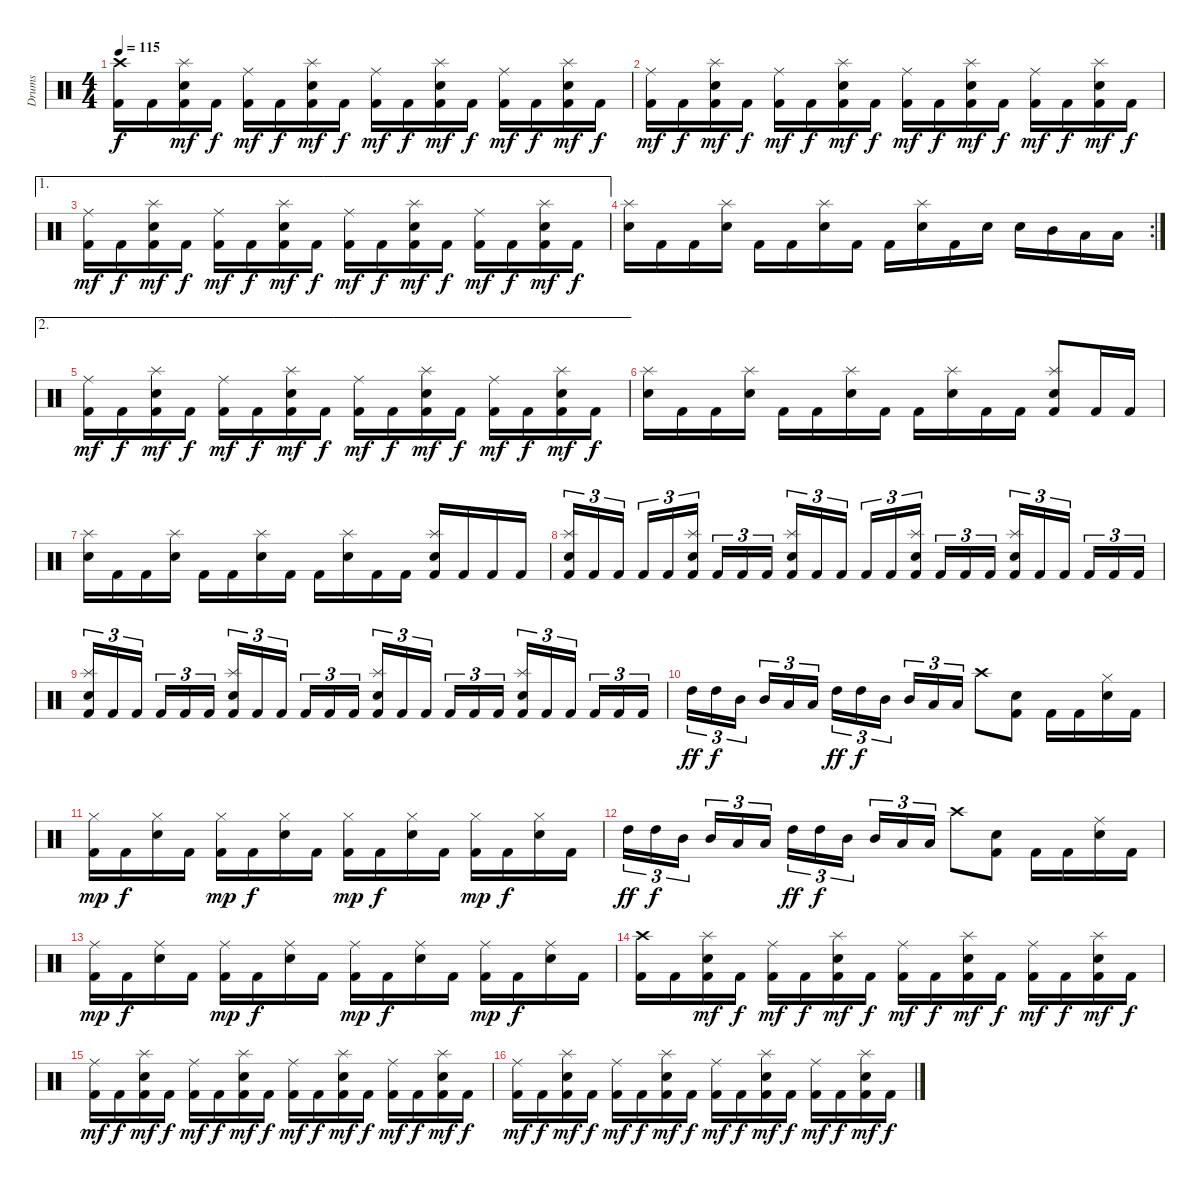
\track ("Drums" "Drums") {instrument percussion}
\staff {score}
\articulation defaults
\ts (4 4)
\tempo 115
\clef neutral
\ks c
("Crash high (hit)" "Kick (hit) 2").16{dy f} "Kick (hit) 2".16 ("Splash (hit)" "Snare (hit) 2" "Kick (hit) 2").16{dy mf} "Kick (hit) 2".16{dy f} ("Ride (middle)" "Kick (hit) 2").16{dy mf} "Kick (hit) 2".16{dy f} ("Splash (hit)" "Snare (hit) 2" "Kick (hit) 2").16{dy mf} "Kick (hit) 2".16{dy f} ("Ride (middle)" "Kick (hit) 2").16{dy mf} "Kick (hit) 2".16{dy f} ("Splash (hit)" "Snare (hit) 2" "Kick (hit) 2").16{dy mf} "Kick (hit) 2".16{dy f} ("Ride (middle)" "Kick (hit) 2").16{dy mf} "Kick (hit) 2".16{dy f} ("Splash (hit)" "Snare (hit) 2" "Kick (hit) 2").16{dy mf} "Kick (hit) 2".16{dy f} |
("Ride (middle)" "Kick (hit) 2").16{dy mf} "Kick (hit) 2".16{dy f} ("Splash (hit)" "Snare (hit) 2" "Kick (hit) 2").16{dy mf} "Kick (hit) 2".16{dy f} ("Ride (middle)" "Kick (hit) 2").16{dy mf} "Kick (hit) 2".16{dy f} ("Splash (hit)" "Snare (hit) 2" "Kick (hit) 2").16{dy mf} "Kick (hit) 2".16{dy f} ("Ride (middle)" "Kick (hit) 2").16{dy mf} "Kick (hit) 2".16{dy f} ("Splash (hit)" "Snare (hit) 2" "Kick (hit) 2").16{dy mf} "Kick (hit) 2".16{dy f} ("Ride (middle)" "Kick (hit) 2").16{dy mf} "Kick (hit) 2".16{dy f} ("Splash (hit)" "Snare (hit) 2" "Kick (hit) 2").16{dy mf} "Kick (hit) 2".16{dy f} |
\ae 1
("Ride (middle)" "Kick (hit) 2").16{dy mf} "Kick (hit) 2".16{dy f} ("Splash (hit)" "Snare (hit) 2" "Kick (hit) 2").16{dy mf} "Kick (hit) 2".16{dy f} ("Ride (middle)" "Kick (hit) 2").16{dy mf} "Kick (hit) 2".16{dy f} ("Splash (hit)" "Snare (hit) 2" "Kick (hit) 2").16{dy mf} "Kick (hit) 2".16{dy f} ("Ride (middle)" "Kick (hit) 2").16{dy mf} "Kick (hit) 2".16{dy f} ("Splash (hit)" "Snare (hit) 2" "Kick (hit) 2").16{dy mf} "Kick (hit) 2".16{dy f} ("Ride (middle)" "Kick (hit) 2").16{dy mf} "Kick (hit) 2".16{dy f} ("Splash (hit)" "Snare (hit) 2" "Kick (hit) 2").16{dy mf} "Kick (hit) 2".16{dy f} |
\rc 2
("Splash (hit)" "Snare (hit) 2").16 "Kick (hit) 2".16 "Kick (hit) 2".16 ("Splash (hit)" "Snare (hit) 2").16 "Kick (hit) 2".16 "Kick (hit) 2".16 ("Splash (hit)" "Snare (hit) 2").16 "Kick (hit) 2".16 "Kick (hit) 2".16 ("Splash (hit)" "Snare (hit) 2").16 "Kick (hit) 2".16 "Snare (hit) 2".16 "Snare (hit) 2".16 "Mid Tom (hit)".16 "Low Tom (hit)".16 "Low Tom (hit)".16 |
\ae 2
("Ride (middle)" "Kick (hit) 2").16{dy mf} "Kick (hit) 2".16{dy f} ("Splash (hit)" "Snare (hit) 2" "Kick (hit) 2").16{dy mf} "Kick (hit) 2".16{dy f} ("Ride (middle)" "Kick (hit) 2").16{dy mf} "Kick (hit) 2".16{dy f} ("Splash (hit)" "Snare (hit) 2" "Kick (hit) 2").16{dy mf} "Kick (hit) 2".16{dy f} ("Ride (middle)" "Kick (hit) 2").16{dy mf} "Kick (hit) 2".16{dy f} ("Splash (hit)" "Snare (hit) 2" "Kick (hit) 2").16{dy mf} "Kick (hit) 2".16{dy f} ("Ride (middle)" "Kick (hit) 2").16{dy mf} "Kick (hit) 2".16{dy f} ("Splash (hit)" "Snare (hit) 2" "Kick (hit) 2").16{dy mf} "Kick (hit) 2".16{dy f} |
("Splash (hit)" "Snare (hit) 2").16 "Kick (hit) 2".16 "Kick (hit) 2".16 ("Splash (hit)" "Snare (hit) 2").16 "Kick (hit) 2".16 "Kick (hit) 2".16 ("Splash (hit)" "Snare (hit) 2").16 "Kick (hit) 2".16 "Kick (hit) 2".16 ("Splash (hit)" "Snare (hit) 2").16 "Kick (hit) 2".16 "Kick (hit) 2".16 ("Splash (hit)" "Snare (hit) 2" "Kick (hit) 2").8 "Kick (hit) 2".16 "Kick (hit) 2".16 |
("Splash (hit)" "Snare (hit) 2").16 "Kick (hit) 2".16 "Kick (hit) 2".16 ("Splash (hit)" "Snare (hit) 2").16 "Kick (hit) 2".16 "Kick (hit) 2".16 ("Splash (hit)" "Snare (hit) 2").16 "Kick (hit) 2".16 "Kick (hit) 2".16 ("Splash (hit)" "Snare (hit) 2").16 "Kick (hit) 2".16 "Kick (hit) 2".16 ("Splash (hit)" "Snare (hit) 2" "Kick (hit) 2").16 "Kick (hit) 2".16 "Kick (hit) 2".16 "Kick (hit) 2".16 |
("Splash (hit)" "Snare (hit) 2" "Kick (hit) 2").16{tu (3 2)} "Kick (hit) 2".16{tu (3 2)} "Kick (hit) 2".16{tu (3 2) beam splitsecondary} "Kick (hit) 2".16{tu (3 2)} "Kick (hit) 2".16{tu (3 2)} ("Splash (hit)" "Snare (hit) 2" "Kick (hit) 2").16{tu (3 2)} "Kick (hit) 2".16{tu (3 2)} "Kick (hit) 2".16{tu (3 2)} "Kick (hit) 2".16{tu (3 2) beam splitsecondary} ("Splash (hit)" "Snare (hit) 2" "Kick (hit) 2").16{tu (3 2)} "Kick (hit) 2".16{tu (3 2)} "Kick (hit) 2".16{tu (3 2)} "Kick (hit) 2".16{tu (3 2)} "Kick (hit) 2".16{tu (3 2)} ("Splash (hit)" "Snare (hit) 2" "Kick (hit) 2").16{tu (3 2) beam splitsecondary} "Kick (hit) 2".16{tu (3 2)} "Kick (hit) 2".16{tu (3 2)} "Kick (hit) 2".16{tu (3 2)} ("Splash (hit)" "Snare (hit) 2" "Kick (hit) 2").16{tu (3 2)} "Kick (hit) 2".16{tu (3 2)} "Kick (hit) 2".16{tu (3 2) beam splitsecondary} "Kick (hit) 2".16{tu (3 2)} "Kick (hit) 2".16{tu (3 2)} "Kick (hit) 2".16{tu (3 2)} |
("Splash (hit)" "Snare (hit) 2" "Kick (hit) 2").16{tu (3 2)} "Kick (hit) 2".16{tu (3 2)} "Kick (hit) 2".16{tu (3 2) beam splitsecondary} "Kick (hit) 2".16{tu (3 2)} "Kick (hit) 2".16{tu (3 2)} "Kick (hit) 2".16{tu (3 2)} ("Splash (hit)" "Snare (hit) 2" "Kick (hit) 2").16{tu (3 2)} "Kick (hit) 2".16{tu (3 2)} "Kick (hit) 2".16{tu (3 2) beam splitsecondary} "Kick (hit) 2".16{tu (3 2)} "Kick (hit) 2".16{tu (3 2)} "Kick (hit) 2".16{tu (3 2)} ("Splash (hit)" "Snare (hit) 2" "Kick (hit) 2").16{tu (3 2)} "Kick (hit) 2".16{tu (3 2)} "Kick (hit) 2".16{tu (3 2) beam splitsecondary} "Kick (hit) 2".16{tu (3 2)} "Kick (hit) 2".16{tu (3 2)} "Kick (hit) 2".16{tu (3 2)} ("Splash (hit)" "Snare (hit) 2" "Kick (hit) 2").16{tu (3 2)} "Kick (hit) 2".16{tu (3 2)} "Kick (hit) 2".16{tu (3 2) beam splitsecondary} "Kick (hit) 2".16{tu (3 2)} "Kick (hit) 2".16{tu (3 2)} "Kick (hit) 2".16{tu (3 2)} |
"High Tom (hit)".16{tu (3 2) dy ff} "High Tom (hit)".16{tu (3 2) dy f} "Mid Tom (hit)".16{tu (3 2) beam splitsecondary} "Mid Tom (hit)".16{tu (3 2)} "Low Tom (hit)".16{tu (3 2)} "Low Tom (hit)".16{tu (3 2)} "High Tom (hit)".16{tu (3 2) dy ff} "High Tom (hit)".16{tu (3 2) dy f} "Mid Tom (hit)".16{tu (3 2) beam splitsecondary} "Mid Tom (hit)".16{tu (3 2)} "Low Tom (hit)".16{tu (3 2)} "Low Tom (hit)".16{tu (3 2)} "Crash high (hit)".8 ("Snare (hit) 2" "Kick (hit) 2").8 "Kick (hit) 2".16 "Kick (hit) 2".16 ("Hi-Hat (closed)" "Snare (hit) 2").16 "Kick (hit) 2".16 |
("Hi-Hat (closed)" "Kick (hit) 2").16{dy mp} "Kick (hit) 2".16{dy f} ("Hi-Hat (closed)" "Snare (hit) 2").16 "Kick (hit) 2".16 ("Hi-Hat (closed)" "Kick (hit) 2").16{dy mp} "Kick (hit) 2".16{dy f} ("Hi-Hat (closed)" "Snare (hit) 2").16 "Kick (hit) 2".16 ("Hi-Hat (closed)" "Kick (hit) 2").16{dy mp} "Kick (hit) 2".16{dy f} ("Hi-Hat (closed)" "Snare (hit) 2").16 "Kick (hit) 2".16 ("Hi-Hat (closed)" "Kick (hit) 2").16{dy mp} "Kick (hit) 2".16{dy f} ("Hi-Hat (closed)" "Snare (hit) 2").16 "Kick (hit) 2".16 |
"High Tom (hit)".16{tu (3 2) dy ff} "High Tom (hit)".16{tu (3 2) dy f} "Mid Tom (hit)".16{tu (3 2) beam splitsecondary} "Mid Tom (hit)".16{tu (3 2)} "Low Tom (hit)".16{tu (3 2)} "Low Tom (hit)".16{tu (3 2)} "High Tom (hit)".16{tu (3 2) dy ff} "High Tom (hit)".16{tu (3 2) dy f} "Mid Tom (hit)".16{tu (3 2) beam splitsecondary} "Mid Tom (hit)".16{tu (3 2)} "Low Tom (hit)".16{tu (3 2)} "Low Tom (hit)".16{tu (3 2)} "Crash high (hit)".8 ("Snare (hit) 2" "Kick (hit) 2").8 "Kick (hit) 2".16 "Kick (hit) 2".16 ("Ride (middle)" "Snare (hit) 2").16 "Kick (hit) 2".16 |
("Ride (middle)" "Kick (hit) 2").16{dy mp} "Kick (hit) 2".16{dy f} ("Ride (middle)" "Snare (hit) 2").16 "Kick (hit) 2".16 ("Ride (middle)" "Kick (hit) 2").16{dy mp} "Kick (hit) 2".16{dy f} ("Ride (middle)" "Snare (hit) 2").16 "Kick (hit) 2".16 ("Ride (middle)" "Kick (hit) 2").16{dy mp} "Kick (hit) 2".16{dy f} ("Ride (middle)" "Snare (hit) 2").16 "Kick (hit) 2".16 ("Ride (middle)" "Kick (hit) 2").16{dy mp} "Kick (hit) 2".16{dy f} ("Ride (middle)" "Snare (hit) 2").16 "Kick (hit) 2".16 |
("Crash high (hit)" "Kick (hit) 2").16 "Kick (hit) 2".16 ("Splash (hit)" "Snare (hit) 2" "Kick (hit) 2").16{dy mf} "Kick (hit) 2".16{dy f} ("Ride (middle)" "Kick (hit) 2").16{dy mf} "Kick (hit) 2".16{dy f} ("Splash (hit)" "Snare (hit) 2" "Kick (hit) 2").16{dy mf} "Kick (hit) 2".16{dy f} ("Ride (middle)" "Kick (hit) 2").16{dy mf} "Kick (hit) 2".16{dy f} ("Splash (hit)" "Snare (hit) 2" "Kick (hit) 2").16{dy mf} "Kick (hit) 2".16{dy f} ("Ride (middle)" "Kick (hit) 2").16{dy mf} "Kick (hit) 2".16{dy f} ("Splash (hit)" "Snare (hit) 2" "Kick (hit) 2").16{dy mf} "Kick (hit) 2".16{dy f} |
("Ride (middle)" "Kick (hit) 2").16{dy mf} "Kick (hit) 2".16{dy f} ("Splash (hit)" "Snare (hit) 2" "Kick (hit) 2").16{dy mf} "Kick (hit) 2".16{dy f} ("Ride (middle)" "Kick (hit) 2").16{dy mf} "Kick (hit) 2".16{dy f} ("Splash (hit)" "Snare (hit) 2" "Kick (hit) 2").16{dy mf} "Kick (hit) 2".16{dy f} ("Ride (middle)" "Kick (hit) 2").16{dy mf} "Kick (hit) 2".16{dy f} ("Splash (hit)" "Snare (hit) 2" "Kick (hit) 2").16{dy mf} "Kick (hit) 2".16{dy f} ("Ride (middle)" "Kick (hit) 2").16{dy mf} "Kick (hit) 2".16{dy f} ("Splash (hit)" "Snare (hit) 2" "Kick (hit) 2").16{dy mf} "Kick (hit) 2".16{dy f} |
("Ride (middle)" "Kick (hit) 2").16{dy mf} "Kick (hit) 2".16{dy f} ("Splash (hit)" "Snare (hit) 2" "Kick (hit) 2").16{dy mf} "Kick (hit) 2".16{dy f} ("Ride (middle)" "Kick (hit) 2").16{dy mf} "Kick (hit) 2".16{dy f} ("Splash (hit)" "Snare (hit) 2" "Kick (hit) 2").16{dy mf} "Kick (hit) 2".16{dy f} ("Ride (middle)" "Kick (hit) 2").16{dy mf} "Kick (hit) 2".16{dy f} ("Splash (hit)" "Snare (hit) 2" "Kick (hit) 2").16{dy mf} "Kick (hit) 2".16{dy f} ("Ride (middle)" "Kick (hit) 2").16{dy mf} "Kick (hit) 2".16{dy f} ("Splash (hit)" "Snare (hit) 2" "Kick (hit) 2").16{dy mf} "Kick (hit) 2".16{dy f}
